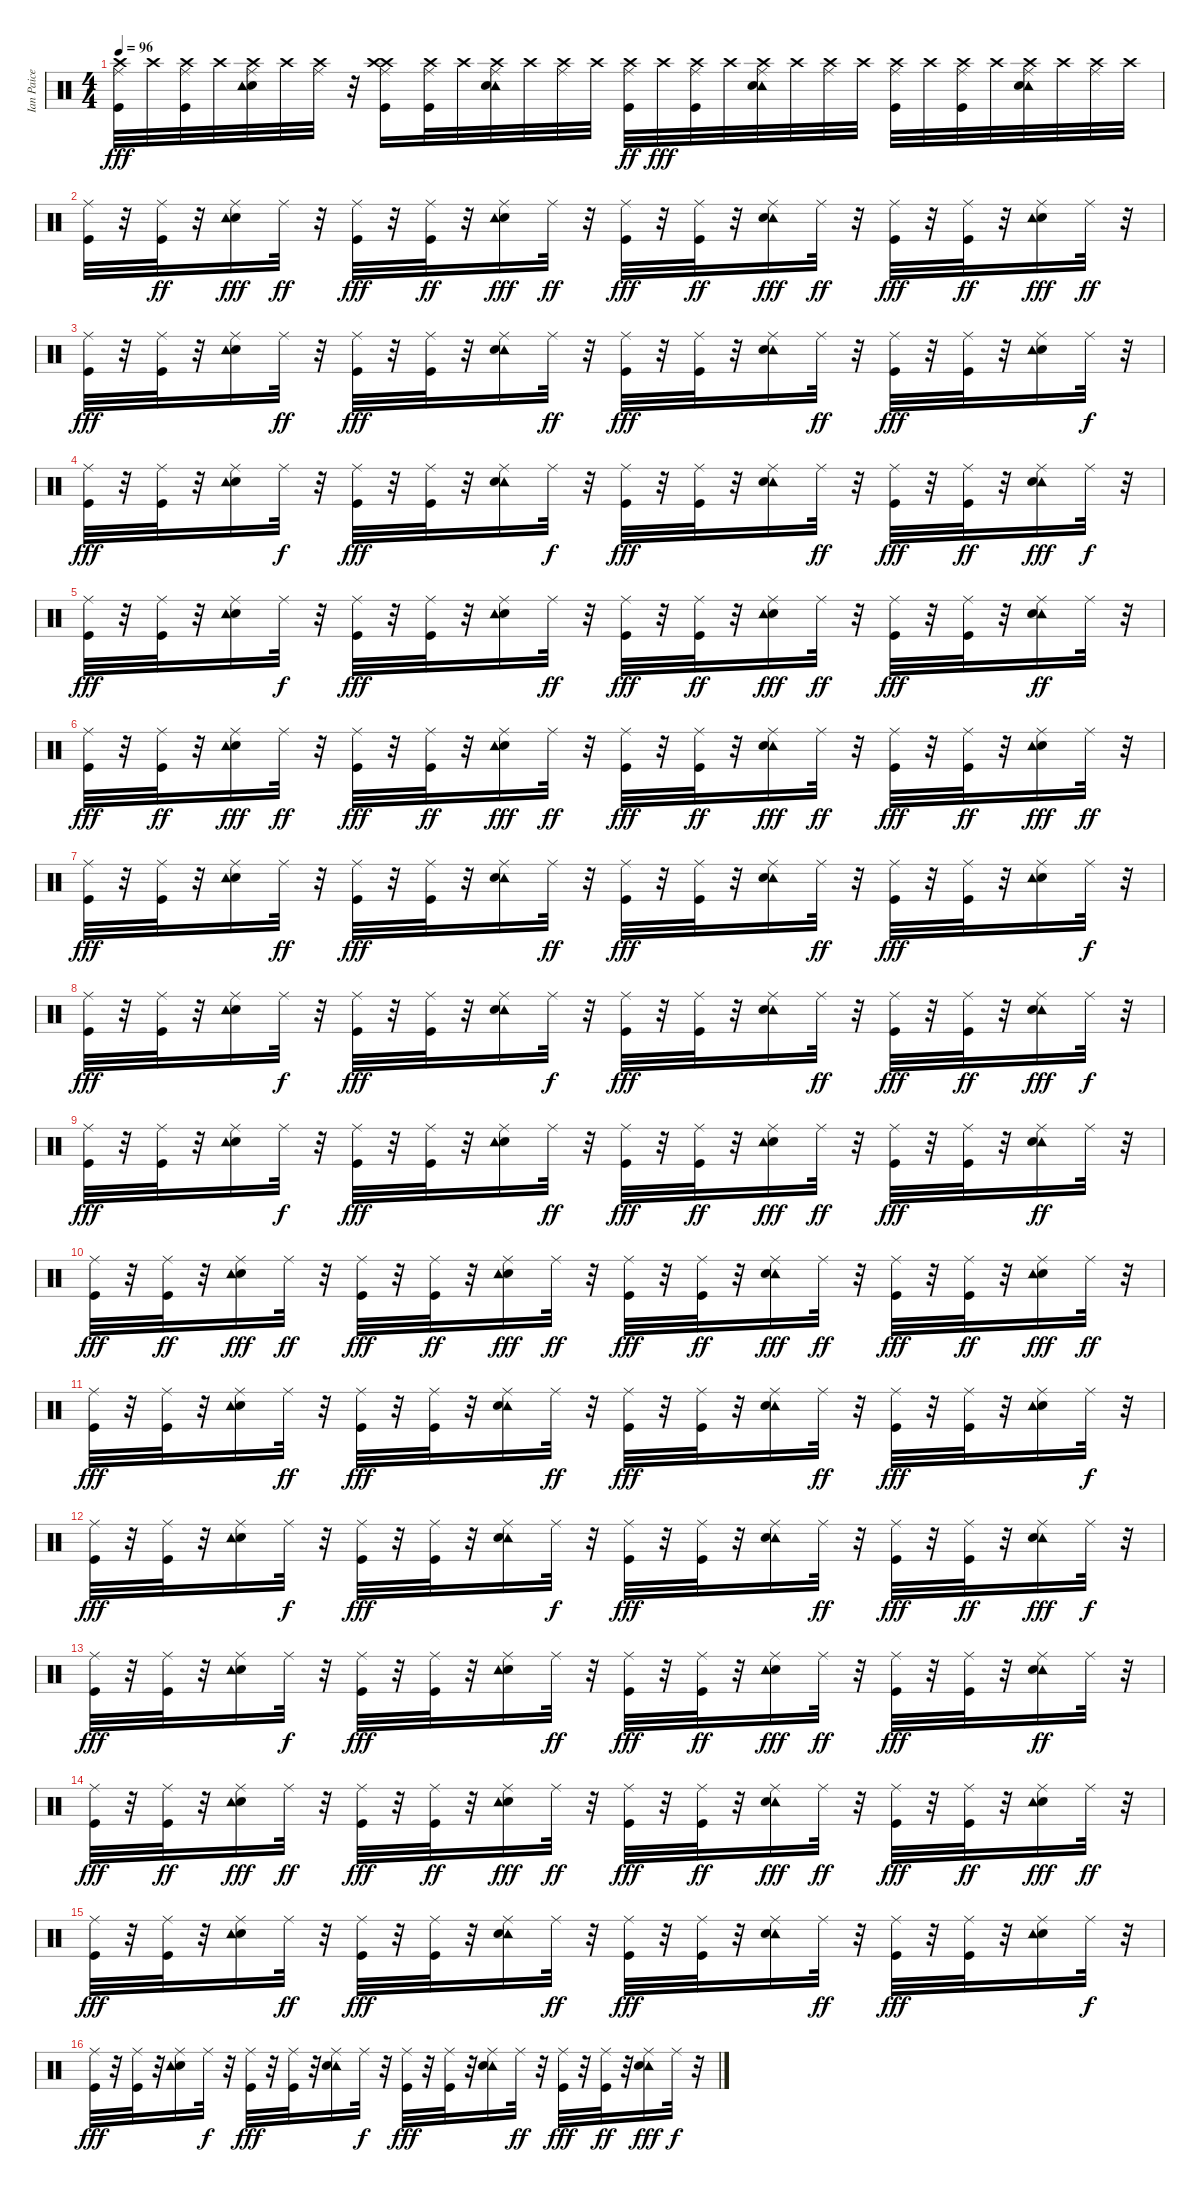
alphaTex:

\track ("Ian Paice" "Ian Paice") {instrument percussion}
\staff {score}
\articulation defaults
\ts (4 4)
\tempo 96
\clef neutral
\ks c
("Kick (hit)" "Ride (middle)" "Crash high (hit)").32{dy fff} "Crash high (hit)".32 ("Kick (hit)" "Ride (middle)" "Crash high (hit)").32 "Crash high (hit)".32 ("Snare (hit) 2" "Ride (middle)" "Tambourine (hit)" "Crash high (hit)").32 "Crash high (hit)".32 ("Ride (middle)" "Crash high (hit)").32 r.32 ("Crash high (hit)" "Kick (hit)" "Ride (middle)" "Crash high (hit)").16 ("Crash high (hit)" "Kick (hit)" "Ride (middle)").32 "Crash high (hit)".32 ("Crash high (hit)" "Tambourine (hit)" "Snare (hit) 2" "Ride (middle)").32 "Crash high (hit)".32 ("Crash high (hit)" "Ride (middle)").32 "Crash high (hit)".32 ("Crash high (hit)" "Kick (hit)" "Ride (middle)").32{dy ff} "Crash high (hit)".32{dy fff} ("Crash high (hit)" "Kick (hit)" "Ride (middle)").32 "Crash high (hit)".32 ("Tambourine (hit)" "Crash high (hit)" "Snare (hit) 2" "Ride (middle)").32 "Crash high (hit)".32 ("Ride (middle)" "Crash high (hit)").32 "Crash high (hit)".32 ("Kick (hit)" "Ride (middle)" "Crash high (hit)").32 "Crash high (hit)".32 ("Kick (hit)" "Ride (middle)" "Crash high (hit)").32 "Crash high (hit)".32 ("Tambourine (hit)" "Snare (hit) 2" "Ride (middle)" "Crash high (hit)").32 "Crash high (hit)".32 ("Ride (middle)" "Crash high (hit)").32 "Crash high (hit)".32 |
("Ride (middle)" "Kick (hit)").32 r.32 ("Kick (hit)" "Ride (middle)").32{dy ff} r.32 ("Snare (hit) 2" "Ride (middle)" "Tambourine (hit)").16{dy fff} "Ride (middle)".32{dy ff} r.32 ("Ride (middle)" "Kick (hit)").32{dy fff} r.32 ("Kick (hit)" "Ride (middle)").32{dy ff} r.32 ("Snare (hit) 2" "Ride (middle)" "Tambourine (hit)").16{dy fff} "Ride (middle)".32{dy ff} r.32 ("Ride (middle)" "Kick (hit)").32{dy fff} r.32 ("Kick (hit)" "Ride (middle)").32{dy ff} r.32 ("Tambourine (hit)" "Snare (hit) 2" "Ride (middle)").16{dy fff} "Ride (middle)".32{dy ff} r.32 ("Ride (middle)" "Kick (hit)").32{dy fff} r.32 ("Kick (hit)" "Ride (middle)").32{dy ff} r.32 ("Snare (hit) 2" "Ride (middle)" "Tambourine (hit)").16{dy fff} "Ride (middle)".32{dy ff} r.32 |
("Ride (middle)" "Kick (hit)").32{dy fff} r.32 ("Kick (hit)" "Ride (middle)").32 r.32 ("Snare (hit) 2" "Ride (middle)" "Tambourine (hit)").16 "Ride (middle)".32{dy ff} r.32 ("Ride (middle)" "Kick (hit)").32{dy fff} r.32 ("Kick (hit)" "Ride (middle)").32 r.32 ("Tambourine (hit)" "Snare (hit) 2" "Ride (middle)").16 "Ride (middle)".32{dy ff} r.32 ("Ride (middle)" "Kick (hit)").32{dy fff} r.32 ("Kick (hit)" "Ride (middle)").32 r.32 ("Tambourine (hit)" "Snare (hit) 2" "Ride (middle)").16 "Ride (middle)".32{dy ff} r.32 ("Ride (middle)" "Kick (hit)").32{dy fff} r.32 ("Kick (hit)" "Ride (middle)").32 r.32 ("Snare (hit) 2" "Ride (middle)" "Tambourine (hit)").16 "Ride (middle)".32{dy f} r.32 |
("Ride (middle)" "Kick (hit)").32{dy fff} r.32 ("Kick (hit)" "Ride (middle)").32 r.32 ("Snare (hit) 2" "Ride (middle)" "Tambourine (hit)").16 "Ride (middle)".32{dy f} r.32 ("Ride (middle)" "Kick (hit)").32{dy fff} r.32 ("Kick (hit)" "Ride (middle)").32 r.32 ("Tambourine (hit)" "Snare (hit) 2" "Ride (middle)").16 "Ride (middle)".32{dy f} r.32 ("Ride (middle)" "Kick (hit)").32{dy fff} r.32 ("Kick (hit)" "Ride (middle)").32 r.32 ("Tambourine (hit)" "Snare (hit) 2" "Ride (middle)").16 "Ride (middle)".32{dy ff} r.32 ("Ride (middle)" "Kick (hit)").32{dy fff} r.32 ("Kick (hit)" "Ride (middle)").32{dy ff} r.32 ("Tambourine (hit)" "Snare (hit) 2" "Ride (middle)").16{dy fff} "Ride (middle)".32{dy f} r.32 |
("Ride (middle)" "Kick (hit)").32{dy fff} r.32 ("Kick (hit)" "Ride (middle)").32 r.32 ("Snare (hit) 2" "Ride (middle)" "Tambourine (hit)").16 "Ride (middle)".32{dy f} r.32 ("Ride (middle)" "Kick (hit)").32{dy fff} r.32 ("Kick (hit)" "Ride (middle)").32 r.32 ("Snare (hit) 2" "Ride (middle)" "Tambourine (hit)").16 "Ride (middle)".32{dy ff} r.32 ("Ride (middle)" "Kick (hit)").32{dy fff} r.32 ("Kick (hit)" "Ride (middle)").32{dy ff} r.32 ("Snare (hit) 2" "Ride (middle)" "Tambourine (hit)").16{dy fff} "Ride (middle)".32{dy ff} r.32 ("Ride (middle)" "Kick (hit)").32{dy fff} r.32 ("Kick (hit)" "Ride (middle)").32 r.32 ("Tambourine (hit)" "Snare (hit) 2" "Ride (middle)").16{dy ff} "Ride (middle)".32 r.32 |
("Ride (middle)" "Kick (hit)").32{dy fff} r.32 ("Kick (hit)" "Ride (middle)").32{dy ff} r.32 ("Snare (hit) 2" "Ride (middle)" "Tambourine (hit)").16{dy fff} "Ride (middle)".32{dy ff} r.32 ("Ride (middle)" "Kick (hit)").32{dy fff} r.32 ("Kick (hit)" "Ride (middle)").32{dy ff} r.32 ("Snare (hit) 2" "Ride (middle)" "Tambourine (hit)").16{dy fff} "Ride (middle)".32{dy ff} r.32 ("Ride (middle)" "Kick (hit)").32{dy fff} r.32 ("Kick (hit)" "Ride (middle)").32{dy ff} r.32 ("Tambourine (hit)" "Snare (hit) 2" "Ride (middle)").16{dy fff} "Ride (middle)".32{dy ff} r.32 ("Ride (middle)" "Kick (hit)").32{dy fff} r.32 ("Kick (hit)" "Ride (middle)").32{dy ff} r.32 ("Snare (hit) 2" "Ride (middle)" "Tambourine (hit)").16{dy fff} "Ride (middle)".32{dy ff} r.32 |
("Ride (middle)" "Kick (hit)").32{dy fff} r.32 ("Kick (hit)" "Ride (middle)").32 r.32 ("Snare (hit) 2" "Ride (middle)" "Tambourine (hit)").16 "Ride (middle)".32{dy ff} r.32 ("Ride (middle)" "Kick (hit)").32{dy fff} r.32 ("Kick (hit)" "Ride (middle)").32 r.32 ("Tambourine (hit)" "Snare (hit) 2" "Ride (middle)").16 "Ride (middle)".32{dy ff} r.32 ("Ride (middle)" "Kick (hit)").32{dy fff} r.32 ("Kick (hit)" "Ride (middle)").32 r.32 ("Tambourine (hit)" "Snare (hit) 2" "Ride (middle)").16 "Ride (middle)".32{dy ff} r.32 ("Ride (middle)" "Kick (hit)").32{dy fff} r.32 ("Kick (hit)" "Ride (middle)").32 r.32 ("Snare (hit) 2" "Ride (middle)" "Tambourine (hit)").16 "Ride (middle)".32{dy f} r.32 |
("Ride (middle)" "Kick (hit)").32{dy fff} r.32 ("Kick (hit)" "Ride (middle)").32 r.32 ("Snare (hit) 2" "Ride (middle)" "Tambourine (hit)").16 "Ride (middle)".32{dy f} r.32 ("Ride (middle)" "Kick (hit)").32{dy fff} r.32 ("Kick (hit)" "Ride (middle)").32 r.32 ("Tambourine (hit)" "Snare (hit) 2" "Ride (middle)").16 "Ride (middle)".32{dy f} r.32 ("Ride (middle)" "Kick (hit)").32{dy fff} r.32 ("Kick (hit)" "Ride (middle)").32 r.32 ("Tambourine (hit)" "Snare (hit) 2" "Ride (middle)").16 "Ride (middle)".32{dy ff} r.32 ("Ride (middle)" "Kick (hit)").32{dy fff} r.32 ("Kick (hit)" "Ride (middle)").32{dy ff} r.32 ("Tambourine (hit)" "Snare (hit) 2" "Ride (middle)").16{dy fff} "Ride (middle)".32{dy f} r.32 |
("Ride (middle)" "Kick (hit)").32{dy fff} r.32 ("Kick (hit)" "Ride (middle)").32 r.32 ("Snare (hit) 2" "Ride (middle)" "Tambourine (hit)").16 "Ride (middle)".32{dy f} r.32 ("Ride (middle)" "Kick (hit)").32{dy fff} r.32 ("Kick (hit)" "Ride (middle)").32 r.32 ("Snare (hit) 2" "Ride (middle)" "Tambourine (hit)").16 "Ride (middle)".32{dy ff} r.32 ("Ride (middle)" "Kick (hit)").32{dy fff} r.32 ("Kick (hit)" "Ride (middle)").32{dy ff} r.32 ("Snare (hit) 2" "Ride (middle)" "Tambourine (hit)").16{dy fff} "Ride (middle)".32{dy ff} r.32 ("Ride (middle)" "Kick (hit)").32{dy fff} r.32 ("Kick (hit)" "Ride (middle)").32 r.32 ("Tambourine (hit)" "Snare (hit) 2" "Ride (middle)").16{dy ff} "Ride (middle)".32 r.32 |
("Ride (middle)" "Kick (hit)").32{dy fff} r.32 ("Kick (hit)" "Ride (middle)").32{dy ff} r.32 ("Snare (hit) 2" "Ride (middle)" "Tambourine (hit)").16{dy fff} "Ride (middle)".32{dy ff} r.32 ("Ride (middle)" "Kick (hit)").32{dy fff} r.32 ("Kick (hit)" "Ride (middle)").32{dy ff} r.32 ("Snare (hit) 2" "Ride (middle)" "Tambourine (hit)").16{dy fff} "Ride (middle)".32{dy ff} r.32 ("Ride (middle)" "Kick (hit)").32{dy fff} r.32 ("Kick (hit)" "Ride (middle)").32{dy ff} r.32 ("Tambourine (hit)" "Snare (hit) 2" "Ride (middle)").16{dy fff} "Ride (middle)".32{dy ff} r.32 ("Ride (middle)" "Kick (hit)").32{dy fff} r.32 ("Kick (hit)" "Ride (middle)").32{dy ff} r.32 ("Snare (hit) 2" "Ride (middle)" "Tambourine (hit)").16{dy fff} "Ride (middle)".32{dy ff} r.32 |
("Ride (middle)" "Kick (hit)").32{dy fff} r.32 ("Kick (hit)" "Ride (middle)").32 r.32 ("Snare (hit) 2" "Ride (middle)" "Tambourine (hit)").16 "Ride (middle)".32{dy ff} r.32 ("Ride (middle)" "Kick (hit)").32{dy fff} r.32 ("Kick (hit)" "Ride (middle)").32 r.32 ("Tambourine (hit)" "Snare (hit) 2" "Ride (middle)").16 "Ride (middle)".32{dy ff} r.32 ("Ride (middle)" "Kick (hit)").32{dy fff} r.32 ("Kick (hit)" "Ride (middle)").32 r.32 ("Tambourine (hit)" "Snare (hit) 2" "Ride (middle)").16 "Ride (middle)".32{dy ff} r.32 ("Ride (middle)" "Kick (hit)").32{dy fff} r.32 ("Kick (hit)" "Ride (middle)").32 r.32 ("Snare (hit) 2" "Ride (middle)" "Tambourine (hit)").16 "Ride (middle)".32{dy f} r.32 |
("Ride (middle)" "Kick (hit)").32{dy fff} r.32 ("Kick (hit)" "Ride (middle)").32 r.32 ("Snare (hit) 2" "Ride (middle)" "Tambourine (hit)").16 "Ride (middle)".32{dy f} r.32 ("Ride (middle)" "Kick (hit)").32{dy fff} r.32 ("Kick (hit)" "Ride (middle)").32 r.32 ("Tambourine (hit)" "Snare (hit) 2" "Ride (middle)").16 "Ride (middle)".32{dy f} r.32 ("Ride (middle)" "Kick (hit)").32{dy fff} r.32 ("Kick (hit)" "Ride (middle)").32 r.32 ("Tambourine (hit)" "Snare (hit) 2" "Ride (middle)").16 "Ride (middle)".32{dy ff} r.32 ("Ride (middle)" "Kick (hit)").32{dy fff} r.32 ("Kick (hit)" "Ride (middle)").32{dy ff} r.32 ("Tambourine (hit)" "Snare (hit) 2" "Ride (middle)").16{dy fff} "Ride (middle)".32{dy f} r.32 |
("Ride (middle)" "Kick (hit)").32{dy fff} r.32 ("Kick (hit)" "Ride (middle)").32 r.32 ("Snare (hit) 2" "Ride (middle)" "Tambourine (hit)").16 "Ride (middle)".32{dy f} r.32 ("Ride (middle)" "Kick (hit)").32{dy fff} r.32 ("Kick (hit)" "Ride (middle)").32 r.32 ("Snare (hit) 2" "Ride (middle)" "Tambourine (hit)").16 "Ride (middle)".32{dy ff} r.32 ("Ride (middle)" "Kick (hit)").32{dy fff} r.32 ("Kick (hit)" "Ride (middle)").32{dy ff} r.32 ("Snare (hit) 2" "Ride (middle)" "Tambourine (hit)").16{dy fff} "Ride (middle)".32{dy ff} r.32 ("Ride (middle)" "Kick (hit)").32{dy fff} r.32 ("Kick (hit)" "Ride (middle)").32 r.32 ("Tambourine (hit)" "Snare (hit) 2" "Ride (middle)").16{dy ff} "Ride (middle)".32 r.32 |
("Ride (middle)" "Kick (hit)").32{dy fff} r.32 ("Kick (hit)" "Ride (middle)").32{dy ff} r.32 ("Snare (hit) 2" "Ride (middle)" "Tambourine (hit)").16{dy fff} "Ride (middle)".32{dy ff} r.32 ("Ride (middle)" "Kick (hit)").32{dy fff} r.32 ("Kick (hit)" "Ride (middle)").32{dy ff} r.32 ("Snare (hit) 2" "Ride (middle)" "Tambourine (hit)").16{dy fff} "Ride (middle)".32{dy ff} r.32 ("Ride (middle)" "Kick (hit)").32{dy fff} r.32 ("Kick (hit)" "Ride (middle)").32{dy ff} r.32 ("Tambourine (hit)" "Snare (hit) 2" "Ride (middle)").16{dy fff} "Ride (middle)".32{dy ff} r.32 ("Ride (middle)" "Kick (hit)").32{dy fff} r.32 ("Kick (hit)" "Ride (middle)").32{dy ff} r.32 ("Snare (hit) 2" "Ride (middle)" "Tambourine (hit)").16{dy fff} "Ride (middle)".32{dy ff} r.32 |
("Ride (middle)" "Kick (hit)").32{dy fff} r.32 ("Kick (hit)" "Ride (middle)").32 r.32 ("Snare (hit) 2" "Ride (middle)" "Tambourine (hit)").16 "Ride (middle)".32{dy ff} r.32 ("Ride (middle)" "Kick (hit)").32{dy fff} r.32 ("Kick (hit)" "Ride (middle)").32 r.32 ("Tambourine (hit)" "Snare (hit) 2" "Ride (middle)").16 "Ride (middle)".32{dy ff} r.32 ("Ride (middle)" "Kick (hit)").32{dy fff} r.32 ("Kick (hit)" "Ride (middle)").32 r.32 ("Tambourine (hit)" "Snare (hit) 2" "Ride (middle)").16 "Ride (middle)".32{dy ff} r.32 ("Ride (middle)" "Kick (hit)").32{dy fff} r.32 ("Kick (hit)" "Ride (middle)").32 r.32 ("Snare (hit) 2" "Ride (middle)" "Tambourine (hit)").16 "Ride (middle)".32{dy f} r.32 |
("Ride (middle)" "Kick (hit)").32{dy fff} r.32 ("Kick (hit)" "Ride (middle)").32 r.32 ("Snare (hit) 2" "Ride (middle)" "Tambourine (hit)").16 "Ride (middle)".32{dy f} r.32 ("Ride (middle)" "Kick (hit)").32{dy fff} r.32 ("Kick (hit)" "Ride (middle)").32 r.32 ("Tambourine (hit)" "Snare (hit) 2" "Ride (middle)").16 "Ride (middle)".32{dy f} r.32 ("Ride (middle)" "Kick (hit)").32{dy fff} r.32 ("Kick (hit)" "Ride (middle)").32 r.32 ("Tambourine (hit)" "Snare (hit) 2" "Ride (middle)").16 "Ride (middle)".32{dy ff} r.32 ("Ride (middle)" "Kick (hit)").32{dy fff} r.32 ("Kick (hit)" "Ride (middle)").32{dy ff} r.32 ("Tambourine (hit)" "Snare (hit) 2" "Ride (middle)").16{dy fff} "Ride (middle)".32{dy f} r.32
